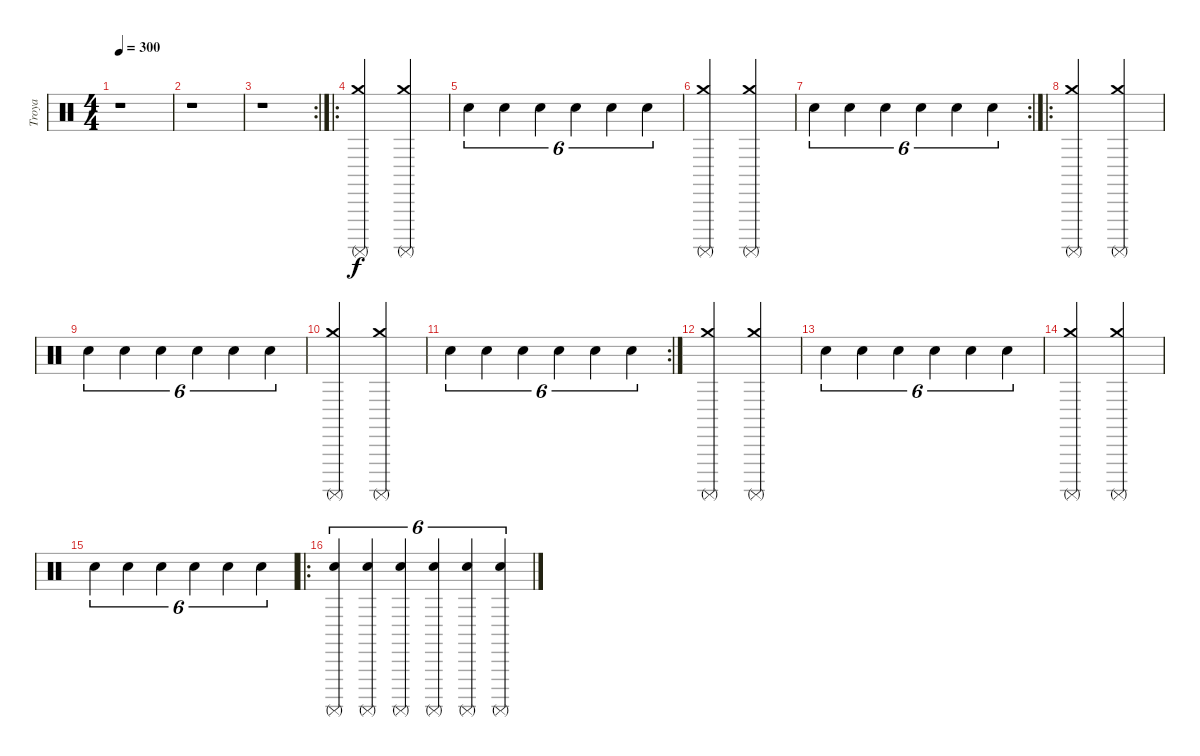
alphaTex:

\track ("Troya" "Troya") {instrument percussion}
\staff {score}
\articulation defaults
\ts (4 4)
\tempo 300
\clef neutral
\ks c
r.1{dy f} |
r.1 |
\rc 2
r.1 |
\ro
("Crash medium (hit)" "Surdo (mute)").2 ("Crash medium (hit)" "Surdo (mute)").2 |
"Electric Snare (hit)".4{tu (6 4)} "Electric Snare (hit)".4{tu (6 4)} "Electric Snare (hit)".4{tu (6 4)} "Electric Snare (hit)".4{tu (6 4)} "Electric Snare (hit)".4{tu (6 4)} "Electric Snare (hit)".4{tu (6 4)} |
("Crash medium (hit)" "Surdo (mute)").2 ("Crash medium (hit)" "Surdo (mute)").2 |
\rc 2 "Electric Snare (hit)".4{tu (6 4)} "Electric Snare (hit)".4{tu (6 4)} "Electric Snare (hit)".4{tu (6 4)} "Electric Snare (hit)".4{tu (6 4)} "Electric Snare (hit)".4{tu (6 4)} "Electric Snare (hit)".4{tu (6 4)}
|
\ro
("Crash medium (hit)" "Surdo (mute)").2 ("Crash medium (hit)" "Surdo (mute)").2 |
"Electric Snare (hit)".4{tu (6 4)} "Electric Snare (hit)".4{tu (6 4)} "Electric Snare (hit)".4{tu (6 4)} "Electric Snare (hit)".4{tu (6 4)} "Electric Snare (hit)".4{tu (6 4)} "Electric Snare (hit)".4{tu (6 4)} |
("Crash medium (hit)" "Surdo (mute)").2 ("Crash medium (hit)" "Surdo (mute)").2 |
\rc 2 "Electric Snare (hit)".4{tu (6 4)} "Electric Snare (hit)".4{tu (6 4)} "Electric Snare (hit)".4{tu (6 4)} "Electric Snare (hit)".4{tu (6 4)} "Electric Snare (hit)".4{tu (6 4)} "Electric Snare (hit)".4{tu (6 4)}
|
("Crash medium (hit)" "Surdo (mute)").2 ("Crash medium (hit)" "Surdo (mute)").2 |
"Electric Snare (hit)".4{tu (6 4)} "Electric Snare (hit)".4{tu (6 4)} "Electric Snare (hit)".4{tu (6 4)} "Electric Snare (hit)".4{tu (6 4)} "Electric Snare (hit)".4{tu (6 4)} "Electric Snare (hit)".4{tu (6 4)} |
("Crash medium (hit)" "Surdo (mute)").2 ("Crash medium (hit)" "Surdo (mute)").2 |
"Electric Snare (hit)".4{tu (6 4)} "Electric Snare (hit)".4{tu (6 4)} "Electric Snare (hit)".4{tu (6 4)} "Electric Snare (hit)".4{tu (6 4)} "Electric Snare (hit)".4{tu (6 4)} "Electric Snare (hit)".4{tu (6 4)} |
\ro
("Electric Snare (hit)" "Surdo (mute)").4{tu (6 4)} ("Electric Snare (hit)" "Surdo (mute)").4{tu (6 4)} ("Electric Snare (hit)" "Surdo (mute)").4{tu (6 4)} ("Electric Snare (hit)" "Surdo (mute)").4{tu (6 4)} ("Electric Snare (hit)" "Surdo (mute)").4{tu (6 4)} ("Electric Snare (hit)" "Surdo (mute)").4{tu (6 4)}
